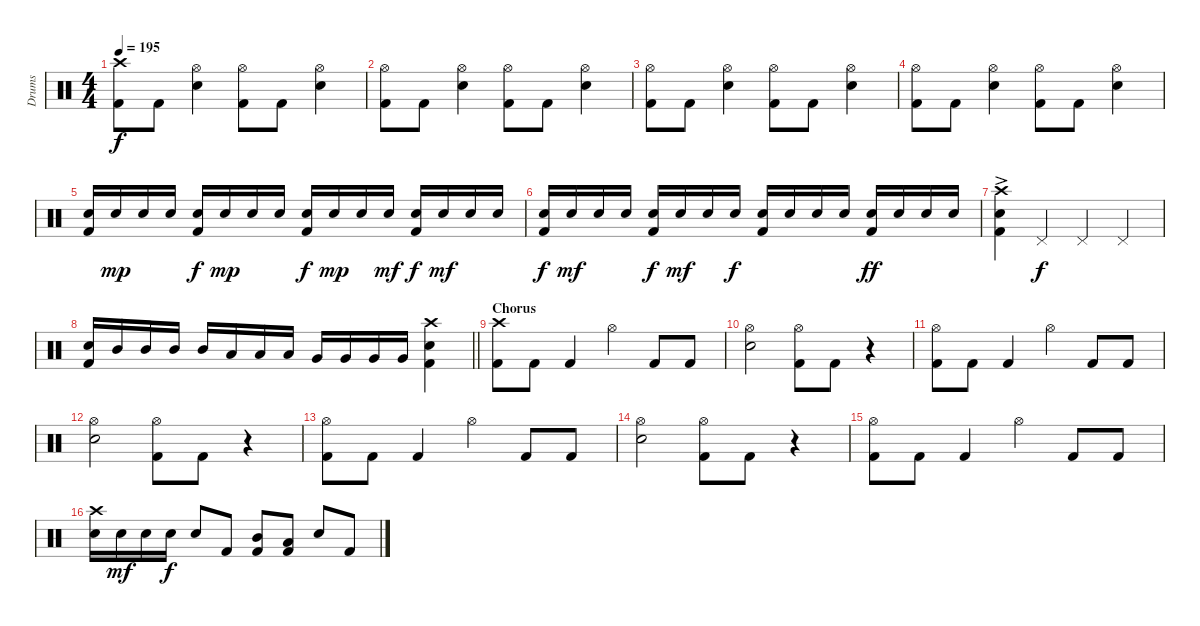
\track ("Drums" "Drums") {instrument percussion}
\staff {score}
\articulation defaults
\ts (4 4)
\tempo 195
\clef neutral
\ks c
("Crash high (hit)" "Kick (hit) 2").8{dy f} "Kick (hit) 2".8 ("Hi-Hat (open)" "Snare (hit) 2").4 ("Hi-Hat (open)" "Kick (hit) 2").8 "Kick (hit) 2".8 ("Hi-Hat (open)" "Snare (hit) 2").4 |
("Hi-Hat (open)" "Kick (hit) 2").8 "Kick (hit) 2".8 ("Hi-Hat (open)" "Snare (hit) 2").4 ("Hi-Hat (open)" "Kick (hit) 2").8 "Kick (hit) 2".8 ("Hi-Hat (open)" "Snare (hit) 2").4 |
("Hi-Hat (open)" "Kick (hit) 2").8 "Kick (hit) 2".8 ("Hi-Hat (open)" "Snare (hit) 2").4 ("Hi-Hat (open)" "Kick (hit) 2").8 "Kick (hit) 2".8 ("Hi-Hat (open)" "Snare (hit) 2").4 |
("Hi-Hat (open)" "Kick (hit) 2").8 "Kick (hit) 2".8 ("Hi-Hat (open)" "Snare (hit) 2").4 ("Hi-Hat (open)" "Kick (hit) 2").8 "Kick (hit) 2".8 ("Hi-Hat (open)" "Snare (hit) 2").4 |
("Snare (hit) 2" "Kick (hit) 2").16 "Snare (hit) 2".16{dy mp} "Snare (hit) 2".16 "Snare (hit) 2".16 ("Snare (hit) 2" "Kick (hit) 2").16{dy f} "Snare (hit) 2".16{dy mp} "Snare (hit) 2".16 "Snare (hit) 2".16 ("Snare (hit) 2" "Kick (hit) 2").16{dy f} "Snare (hit) 2".16{dy mp} "Snare (hit) 2".16 "Snare (hit) 2".16{dy mf} ("Snare (hit) 2" "Kick (hit) 2").16{dy f} "Snare (hit) 2".16{dy mf} "Snare (hit) 2".16 "Snare (hit) 2".16 |
("Snare (hit) 2" "Kick (hit) 2").16{dy f} "Snare (hit) 2".16{dy mf} "Snare (hit) 2".16 "Snare (hit) 2".16 ("Snare (hit) 2" "Kick (hit) 2").16{dy f} "Snare (hit) 2".16{dy mf} "Snare (hit) 2".16 "Snare (hit) 2".16{dy f} ("Snare (hit) 2" "Kick (hit) 2").16 "Snare (hit) 2".16 "Snare (hit) 2".16 "Snare (hit) 2".16 ("Snare (hit) 2" "Kick (hit) 2").16{dy ff} "Snare (hit) 2".16 "Snare (hit) 2".16 "Snare (hit) 2".16 |
("Crash high (hit)"{ac} "Snare (hit) 2"{ac} "Kick (hit) 2"{ac}).4 "Pedal Hi-Hat (hit)".4{dy f} "Pedal Hi-Hat (hit)".4 "Pedal Hi-Hat (hit)".4 |
\barLineRight lightlight
("Snare (hit) 2" "Kick (hit) 2").16 "Mid Tom (hit)".16 "Mid Tom (hit)".16 "Mid Tom (hit)".16 "Mid Tom (hit)".16 "Low Tom (hit)".16 "Low Tom (hit)".16 "Low Tom (hit)".16 "Very Low Tom (hit)".16 "Very Low Tom (hit)".16 "Very Low Tom (hit)".16 "Very Low Tom (hit)".16 ("Crash high (hit)" "Snare (hit) 2" "Kick (hit) 2").4 |
\section ("" "Chorus")
("Crash high (hit)" "Kick (hit) 2").8 "Kick (hit) 2".8 "Kick (hit) 2".4 "Hi-Hat (open)".4 "Kick (hit) 2".8 "Kick (hit) 2".8 |
("Hi-Hat (open)" "Snare (hit) 2").2 ("Hi-Hat (open)" "Kick (hit) 2").8 "Kick (hit) 2".8 r.4 |
("Hi-Hat (open)" "Kick (hit) 2").8 "Kick (hit) 2".8 "Kick (hit) 2".4 "Hi-Hat (open)".4 "Kick (hit) 2".8 "Kick (hit) 2".8 |
("Hi-Hat (open)" "Snare (hit) 2").2 ("Hi-Hat (open)" "Kick (hit) 2").8 "Kick (hit) 2".8 r.4 |
("Hi-Hat (open)" "Kick (hit) 2").8 "Kick (hit) 2".8 "Kick (hit) 2".4 "Hi-Hat (open)".4 "Kick (hit) 2".8 "Kick (hit) 2".8 |
("Hi-Hat (open)" "Snare (hit) 2").2 ("Hi-Hat (open)" "Kick (hit) 2").8 "Kick (hit) 2".8 r.4 |
("Hi-Hat (open)" "Kick (hit) 2").8 "Kick (hit) 2".8 "Kick (hit) 2".4 "Hi-Hat (open)".4 "Kick (hit) 2".8 "Kick (hit) 2".8 |
("Crash high (hit)" "Snare (hit) 2").16 "Snare (hit) 2".16{dy mf} "Snare (hit) 2".16 "Snare (hit) 2".16{dy f} "Snare (hit) 2".8 "Kick (hit) 2".8 ("Mid Tom (hit)" "Kick (hit) 2").8 ("Low Tom (hit)" "Kick (hit) 2").8 "Snare (hit) 2".8 "Kick (hit) 2".8
